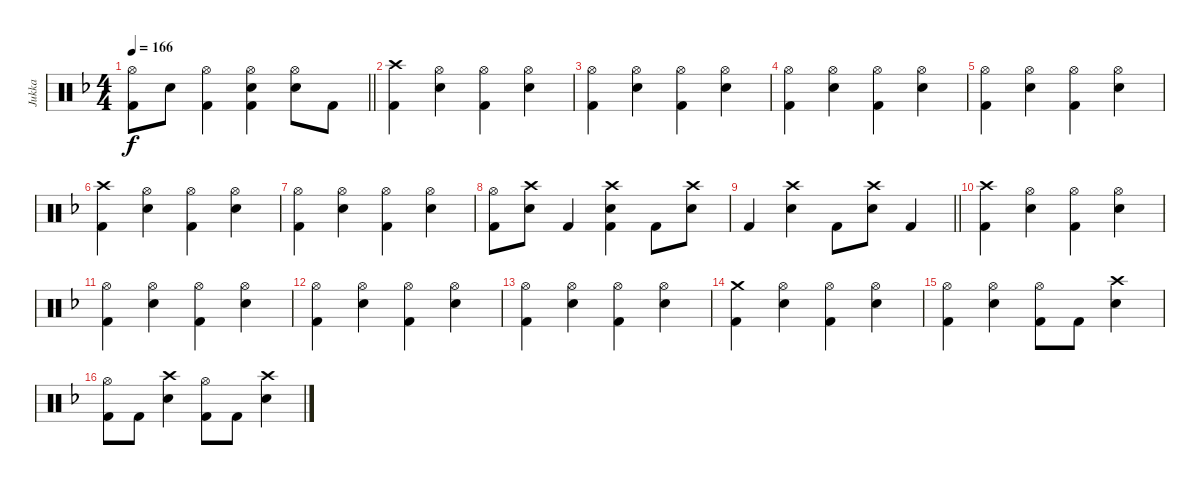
\track ("Jukka" "Jukka") {instrument percussion}
\staff {score}
\articulation defaults
\ts (4 4)
\tempo 166
\clef neutral
\barLineRight lightlight
\ks f
("Hi-Hat (open)" "Kick (hit) 2").8{dy f} "Electric Snare (hit)".8 ("Hi-Hat (open)" "Kick (hit) 2").4 ("Hi-Hat (open)" "Kick (hit) 2" "Electric Snare (hit)").4 ("Hi-Hat (open)" "Electric Snare (hit)").8 "Kick (hit) 2".8 |
\section ("" "")
("Crash high (hit)" "Kick (hit) 2").4 ("Hi-Hat (open)" "Electric Snare (hit)").4 ("Hi-Hat (open)" "Kick (hit) 2").4 ("Hi-Hat (open)" "Electric Snare (hit)").4 |
("Hi-Hat (open)" "Kick (hit) 2").4 ("Hi-Hat (open)" "Electric Snare (hit)").4 ("Hi-Hat (open)" "Kick (hit) 2").4 ("Hi-Hat (open)" "Electric Snare (hit)").4 |
("Hi-Hat (open)" "Kick (hit) 2").4 ("Hi-Hat (open)" "Electric Snare (hit)").4 ("Hi-Hat (open)" "Kick (hit) 2").4 ("Hi-Hat (open)" "Electric Snare (hit)").4 |
("Hi-Hat (open)" "Kick (hit) 2").4 ("Hi-Hat (open)" "Electric Snare (hit)").4 ("Hi-Hat (open)" "Kick (hit) 2").4 ("Hi-Hat (open)" "Electric Snare (hit)").4 |
("Crash high (hit)" "Kick (hit) 2").4 ("Hi-Hat (open)" "Electric Snare (hit)").4 ("Hi-Hat (open)" "Kick (hit) 2").4 ("Hi-Hat (open)" "Electric Snare (hit)").4 |
("Hi-Hat (open)" "Kick (hit) 2").4 ("Hi-Hat (open)" "Electric Snare (hit)").4 ("Hi-Hat (open)" "Kick (hit) 2").4 ("Hi-Hat (open)" "Electric Snare (hit)").4 |
("Hi-Hat (open)" "Kick (hit) 2").8 ("Crash high (hit)" "Electric Snare (hit)").8 "Kick (hit) 2".4 ("Crash high (hit)" "Kick (hit) 2" "Electric Snare (hit)").4 "Kick (hit) 2".8 ("Crash high (hit)" "Electric Snare (hit)").8 |
\barLineRight lightlight "Kick (hit) 2".4
("Crash high (hit)" "Electric Snare (hit)").4 "Kick (hit) 2".8 ("Crash high (hit)" "Electric Snare (hit)").8 "Kick (hit) 2".4 |
\section ("" "")
("Crash high (hit)" "Kick (hit) 2").4 ("Hi-Hat (open)" "Electric Snare (hit)").4 ("Hi-Hat (open)" "Kick (hit) 2").4 ("Hi-Hat (open)" "Electric Snare (hit)").4 |
("Hi-Hat (open)" "Kick (hit) 2").4 ("Hi-Hat (open)" "Electric Snare (hit)").4 ("Hi-Hat (open)" "Kick (hit) 2").4 ("Hi-Hat (open)" "Electric Snare (hit)").4 |
("Hi-Hat (open)" "Kick (hit) 2").4 ("Hi-Hat (open)" "Electric Snare (hit)").4 ("Hi-Hat (open)" "Kick (hit) 2").4 ("Hi-Hat (open)" "Electric Snare (hit)").4 |
("Hi-Hat (open)" "Kick (hit) 2").4 ("Hi-Hat (open)" "Electric Snare (hit)").4 ("Hi-Hat (open)" "Kick (hit) 2").4 ("Hi-Hat (open)" "Electric Snare (hit)").4 |
("Crash medium (hit)" "Kick (hit) 2").4 ("Hi-Hat (open)" "Electric Snare (hit)").4 ("Hi-Hat (open)" "Kick (hit) 2").4 ("Hi-Hat (open)" "Electric Snare (hit)").4 |
("Hi-Hat (open)" "Kick (hit) 2").4 ("Hi-Hat (open)" "Electric Snare (hit)").4 ("Hi-Hat (open)" "Kick (hit) 2").8 "Kick (hit) 2".8 ("Crash high (hit)" "Electric Snare (hit)").4 |
("Hi-Hat (open)" "Kick (hit) 2").8 "Kick (hit) 2".8 ("Crash high (hit)" "Electric Snare (hit)").4 ("Hi-Hat (open)" "Kick (hit) 2").8 "Kick (hit) 2".8 ("Crash high (hit)" "Electric Snare (hit)").4
